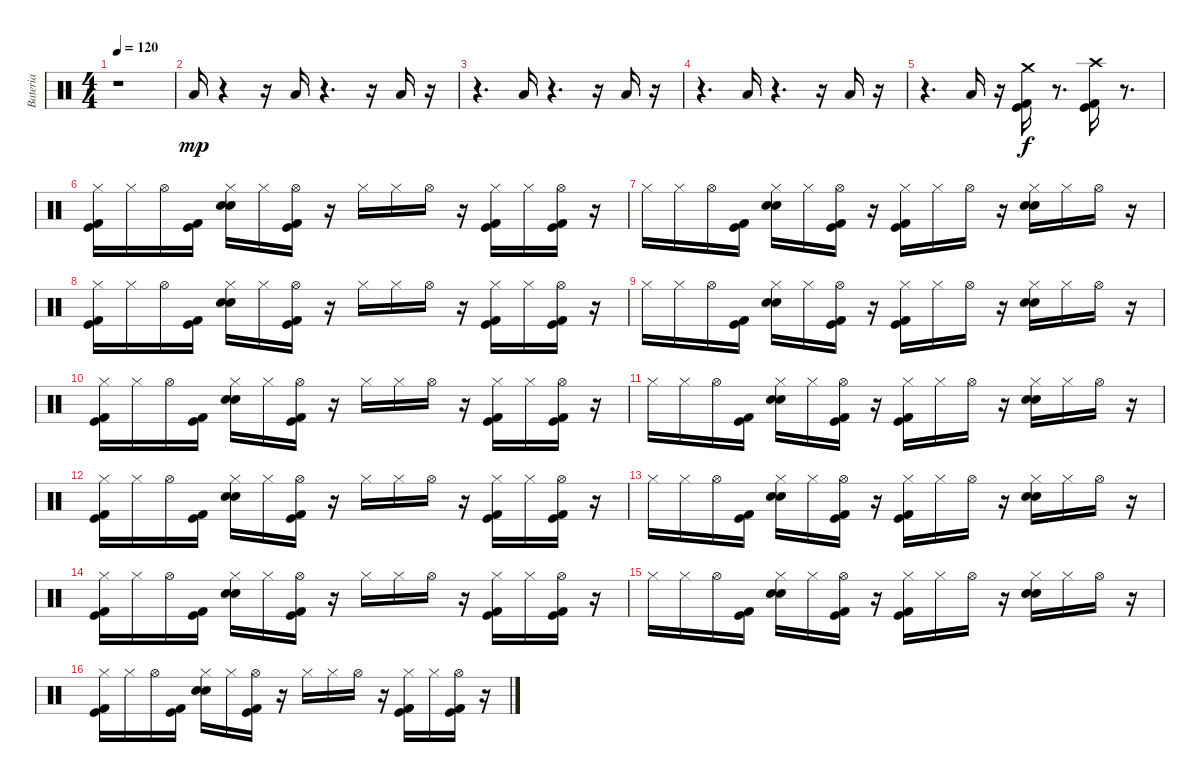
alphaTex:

\track ("Bateria" "Bateria") {instrument percussion}
\staff {score}
\articulation defaults
\ts (4 4)
\tempo 120
\clef neutral
\ks c
r.1{dy f} |
"Low Tom (hit)".16{dy mp} r.4 r.16 "Low Tom (hit)".16 r.4{d} r.16 "Low Tom (hit)".16 r.16 |
r.4{d} "Low Tom (hit)".16 r.4{d} r.16 "Low Tom (hit)".16 r.16 |
r.4{d} "Low Tom (hit)".16 r.4{d} r.16 "Low Tom (hit)".16 r.16 |
r.4{d} "Low Tom (hit)".16 r.16 ("Crash medium (hit)" "Kick (hit) 2" "Kick (hit)").16{dy f} r.8{d} ("Crash high (hit)" "Kick (hit) 2" "Kick (hit)").16 r.8{d} |
("Hi-Hat (closed)" "Kick (hit) 2" "Kick (hit)").16 "Hi-Hat (closed)".16 "Hi-Hat (open)".16 ("Kick (hit) 2" "Kick (hit)").16 ("Hi-Hat (closed)" "Electric Snare (hit)" "Snare (hit) 2").16 "Hi-Hat (closed)".16 ("Kick (hit) 2" "Kick (hit)" "Hi-Hat (open)").16 r.16 "Hi-Hat (closed)".16 "Hi-Hat (closed)".16 "Hi-Hat (open)".16 r.16 ("Kick (hit) 2" "Kick (hit)" "Hi-Hat (closed)").16 "Hi-Hat (closed)".16 ("Kick (hit) 2" "Kick (hit)" "Hi-Hat (open)").16 r.16 |
"Hi-Hat (closed)".16 "Hi-Hat (closed)".16 "Hi-Hat (open)".16 ("Kick (hit) 2" "Kick (hit)").16 ("Electric Snare (hit)" "Snare (hit) 2" "Hi-Hat (closed)").16 "Hi-Hat (closed)".16 ("Kick (hit) 2" "Kick (hit)" "Hi-Hat (open)").16 r.16 ("Kick (hit) 2" "Kick (hit)" "Hi-Hat (closed)").16 "Hi-Hat (closed)".16 "Hi-Hat (open)".16 r.16 ("Snare (hit) 2" "Electric Snare (hit)" "Hi-Hat (closed)").16 "Hi-Hat (closed)".16 "Hi-Hat (open)".16 r.16 |
("Hi-Hat (closed)" "Kick (hit) 2" "Kick (hit)").16 "Hi-Hat (closed)".16 "Hi-Hat (open)".16 ("Kick (hit) 2" "Kick (hit)").16 ("Hi-Hat (closed)" "Electric Snare (hit)" "Snare (hit) 2").16 "Hi-Hat (closed)".16 ("Kick (hit) 2" "Kick (hit)" "Hi-Hat (open)").16 r.16 "Hi-Hat (closed)".16 "Hi-Hat (closed)".16 "Hi-Hat (open)".16 r.16 ("Kick (hit) 2" "Kick (hit)" "Hi-Hat (closed)").16 "Hi-Hat (closed)".16 ("Kick (hit) 2" "Kick (hit)" "Hi-Hat (open)").16 r.16 |
"Hi-Hat (closed)".16 "Hi-Hat (closed)".16 "Hi-Hat (open)".16 ("Kick (hit) 2" "Kick (hit)").16 ("Electric Snare (hit)" "Snare (hit) 2" "Hi-Hat (closed)").16 "Hi-Hat (closed)".16 ("Kick (hit) 2" "Kick (hit)" "Hi-Hat (open)").16 r.16 ("Kick (hit) 2" "Kick (hit)" "Hi-Hat (closed)").16 "Hi-Hat (closed)".16 "Hi-Hat (open)".16 r.16 ("Snare (hit) 2" "Electric Snare (hit)" "Hi-Hat (closed)").16 "Hi-Hat (closed)".16 "Hi-Hat (open)".16 r.16 |
("Hi-Hat (closed)" "Kick (hit) 2" "Kick (hit)").16 "Hi-Hat (closed)".16 "Hi-Hat (open)".16 ("Kick (hit) 2" "Kick (hit)").16 ("Hi-Hat (closed)" "Electric Snare (hit)" "Snare (hit) 2").16 "Hi-Hat (closed)".16 ("Kick (hit) 2" "Kick (hit)" "Hi-Hat (open)").16 r.16 "Hi-Hat (closed)".16 "Hi-Hat (closed)".16 "Hi-Hat (open)".16 r.16 ("Kick (hit) 2" "Kick (hit)" "Hi-Hat (closed)").16 "Hi-Hat (closed)".16 ("Kick (hit) 2" "Kick (hit)" "Hi-Hat (open)").16 r.16 |
"Hi-Hat (closed)".16 "Hi-Hat (closed)".16 "Hi-Hat (open)".16 ("Kick (hit) 2" "Kick (hit)").16 ("Electric Snare (hit)" "Snare (hit) 2" "Hi-Hat (closed)").16 "Hi-Hat (closed)".16 ("Kick (hit) 2" "Kick (hit)" "Hi-Hat (open)").16 r.16 ("Kick (hit) 2" "Kick (hit)" "Hi-Hat (closed)").16 "Hi-Hat (closed)".16 "Hi-Hat (open)".16 r.16 ("Snare (hit) 2" "Electric Snare (hit)" "Hi-Hat (closed)").16 "Hi-Hat (closed)".16 "Hi-Hat (open)".16 r.16 |
("Hi-Hat (closed)" "Kick (hit) 2" "Kick (hit)").16 "Hi-Hat (closed)".16 "Hi-Hat (open)".16 ("Kick (hit) 2" "Kick (hit)").16 ("Hi-Hat (closed)" "Electric Snare (hit)" "Snare (hit) 2").16 "Hi-Hat (closed)".16 ("Kick (hit) 2" "Kick (hit)" "Hi-Hat (open)").16 r.16 "Hi-Hat (closed)".16 "Hi-Hat (closed)".16 "Hi-Hat (open)".16 r.16 ("Kick (hit) 2" "Kick (hit)" "Hi-Hat (closed)").16 "Hi-Hat (closed)".16 ("Kick (hit) 2" "Kick (hit)" "Hi-Hat (open)").16 r.16 |
"Hi-Hat (closed)".16 "Hi-Hat (closed)".16 "Hi-Hat (open)".16 ("Kick (hit) 2" "Kick (hit)").16 ("Electric Snare (hit)" "Snare (hit) 2" "Hi-Hat (closed)").16 "Hi-Hat (closed)".16 ("Kick (hit) 2" "Kick (hit)" "Hi-Hat (open)").16 r.16 ("Kick (hit) 2" "Kick (hit)" "Hi-Hat (closed)").16 "Hi-Hat (closed)".16 "Hi-Hat (open)".16 r.16 ("Snare (hit) 2" "Electric Snare (hit)" "Hi-Hat (closed)").16 "Hi-Hat (closed)".16 "Hi-Hat (open)".16 r.16 |
("Hi-Hat (closed)" "Kick (hit) 2" "Kick (hit)").16 "Hi-Hat (closed)".16 "Hi-Hat (open)".16 ("Kick (hit) 2" "Kick (hit)").16 ("Hi-Hat (closed)" "Electric Snare (hit)" "Snare (hit) 2").16 "Hi-Hat (closed)".16 ("Kick (hit) 2" "Kick (hit)" "Hi-Hat (open)").16 r.16 "Hi-Hat (closed)".16 "Hi-Hat (closed)".16 "Hi-Hat (open)".16 r.16 ("Kick (hit) 2" "Kick (hit)" "Hi-Hat (closed)").16 "Hi-Hat (closed)".16 ("Kick (hit) 2" "Kick (hit)" "Hi-Hat (open)").16 r.16 |
"Hi-Hat (closed)".16 "Hi-Hat (closed)".16 "Hi-Hat (open)".16 ("Kick (hit) 2" "Kick (hit)").16 ("Electric Snare (hit)" "Snare (hit) 2" "Hi-Hat (closed)").16 "Hi-Hat (closed)".16 ("Kick (hit) 2" "Kick (hit)" "Hi-Hat (open)").16 r.16 ("Kick (hit) 2" "Kick (hit)" "Hi-Hat (closed)").16 "Hi-Hat (closed)".16 "Hi-Hat (open)".16 r.16 ("Snare (hit) 2" "Electric Snare (hit)" "Hi-Hat (closed)").16 "Hi-Hat (closed)".16 "Hi-Hat (open)".16 r.16 |
("Hi-Hat (closed)" "Kick (hit) 2" "Kick (hit)").16 "Hi-Hat (closed)".16 "Hi-Hat (open)".16 ("Kick (hit) 2" "Kick (hit)").16 ("Hi-Hat (closed)" "Electric Snare (hit)" "Snare (hit) 2").16 "Hi-Hat (closed)".16 ("Kick (hit) 2" "Kick (hit)" "Hi-Hat (open)").16 r.16 "Hi-Hat (closed)".16 "Hi-Hat (closed)".16 "Hi-Hat (open)".16 r.16 ("Kick (hit) 2" "Kick (hit)" "Hi-Hat (closed)").16 "Hi-Hat (closed)".16 ("Kick (hit) 2" "Kick (hit)" "Hi-Hat (open)").16 r.16
